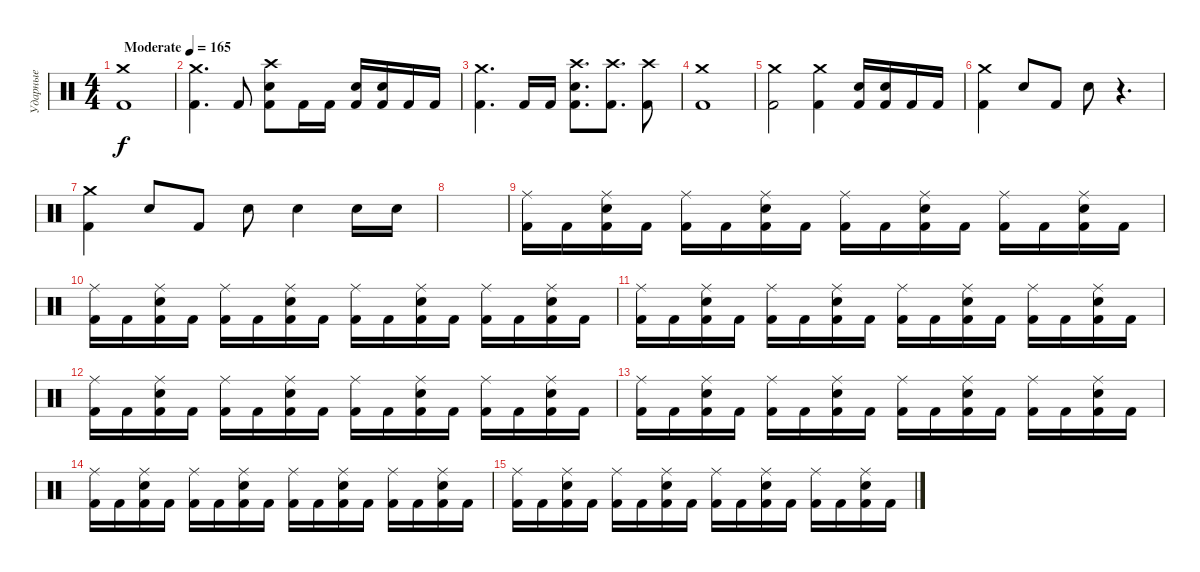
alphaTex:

\track ("Ударные" "Ударные") {instrument percussion}
\staff {score}
\articulation defaults
\ts (4 4)
\tempo (165 "Moderate")
\clef neutral
\ks c
("Kick (hit) 2" "Crash medium (hit)").1{dy f} |
("Kick (hit) 2" "Crash medium (hit)").4{d} "Kick (hit) 2".8 ("Kick (hit) 2" "Electric Snare (hit)" "Crash high (hit)").8 "Kick (hit) 2".16 "Kick (hit) 2".16 ("Kick (hit) 2" "Electric Snare (hit)").16 ("Kick (hit) 2" "Electric Snare (hit)").16 "Kick (hit) 2".16 "Kick (hit) 2".16 |
("Kick (hit) 2" "Crash medium (hit)").4{d} "Kick (hit) 2".16 "Kick (hit) 2".16 ("Kick (hit) 2" "Electric Snare (hit)" "Crash high (hit)").8{d} ("Kick (hit) 2" "Crash high (hit)").8{d} ("Kick (hit) 2" "Crash high (hit)").8 |
("Kick (hit) 2" "Crash medium (hit)").1 |
("Kick (hit) 2" "Crash medium (hit)").2 ("Kick (hit) 2" "Crash medium (hit)").4 ("Kick (hit) 2" "Electric Snare (hit)").16 ("Kick (hit) 2" "Electric Snare (hit)").16 "Kick (hit) 2".16 "Kick (hit) 2".16 |
("Kick (hit) 2" "Crash medium (hit)").4 "Electric Snare (hit)".8 "Kick (hit) 2".8 "Electric Snare (hit)".8 r.4{d} |
("Kick (hit) 2" "Crash medium (hit)").4 "Electric Snare (hit)".8 "Kick (hit) 2".8 "Electric Snare (hit)".8 "Electric Snare (hit)".4 "Electric Snare (hit)".16 "Electric Snare (hit)".16 |
|
("Kick (hit) 2" "Ride (middle)").16 "Kick (hit) 2".16 ("Kick (hit) 2" "Electric Snare (hit)" "Ride (middle)").16 "Kick (hit) 2".16 ("Kick (hit) 2" "Ride (middle)").16 "Kick (hit) 2".16 ("Kick (hit) 2" "Electric Snare (hit)" "Ride (middle)").16 "Kick (hit) 2".16 ("Kick (hit) 2" "Ride (middle)").16 "Kick (hit) 2".16 ("Kick (hit) 2" "Electric Snare (hit)" "Ride (middle)").16 "Kick (hit) 2".16 ("Kick (hit) 2" "Ride (middle)").16 "Kick (hit) 2".16 ("Kick (hit) 2" "Electric Snare (hit)" "Ride (middle)").16 "Kick (hit) 2".16 |
("Kick (hit) 2" "Ride (middle)").16 "Kick (hit) 2".16 ("Kick (hit) 2" "Electric Snare (hit)" "Ride (middle)").16 "Kick (hit) 2".16 ("Kick (hit) 2" "Ride (middle)").16 "Kick (hit) 2".16 ("Kick (hit) 2" "Electric Snare (hit)" "Ride (middle)").16 "Kick (hit) 2".16 ("Kick (hit) 2" "Ride (middle)").16 "Kick (hit) 2".16 ("Kick (hit) 2" "Electric Snare (hit)" "Ride (middle)").16 "Kick (hit) 2".16 ("Kick (hit) 2" "Ride (middle)").16 "Kick (hit) 2".16 ("Kick (hit) 2" "Electric Snare (hit)" "Ride (middle)").16 "Kick (hit) 2".16 |
("Kick (hit) 2" "Ride (middle)").16 "Kick (hit) 2".16 ("Kick (hit) 2" "Electric Snare (hit)" "Ride (middle)").16 "Kick (hit) 2".16 ("Kick (hit) 2" "Ride (middle)").16 "Kick (hit) 2".16 ("Kick (hit) 2" "Electric Snare (hit)" "Ride (middle)").16 "Kick (hit) 2".16 ("Kick (hit) 2" "Ride (middle)").16 "Kick (hit) 2".16 ("Kick (hit) 2" "Electric Snare (hit)" "Ride (middle)").16 "Kick (hit) 2".16 ("Kick (hit) 2" "Ride (middle)").16 "Kick (hit) 2".16 ("Kick (hit) 2" "Electric Snare (hit)" "Ride (middle)").16 "Kick (hit) 2".16 |
("Kick (hit) 2" "Ride (middle)").16 "Kick (hit) 2".16 ("Kick (hit) 2" "Electric Snare (hit)" "Ride (middle)").16 "Kick (hit) 2".16 ("Kick (hit) 2" "Ride (middle)").16 "Kick (hit) 2".16 ("Kick (hit) 2" "Electric Snare (hit)" "Ride (middle)").16 "Kick (hit) 2".16 ("Kick (hit) 2" "Ride (middle)").16 "Kick (hit) 2".16 ("Kick (hit) 2" "Electric Snare (hit)" "Ride (middle)").16 "Kick (hit) 2".16 ("Kick (hit) 2" "Ride (middle)").16 "Kick (hit) 2".16 ("Kick (hit) 2" "Electric Snare (hit)" "Ride (middle)").16 "Kick (hit) 2".16 |
("Kick (hit) 2" "Ride (middle)").16 "Kick (hit) 2".16 ("Kick (hit) 2" "Electric Snare (hit)" "Ride (middle)").16 "Kick (hit) 2".16 ("Kick (hit) 2" "Ride (middle)").16 "Kick (hit) 2".16 ("Kick (hit) 2" "Electric Snare (hit)" "Ride (middle)").16 "Kick (hit) 2".16 ("Kick (hit) 2" "Ride (middle)").16 "Kick (hit) 2".16 ("Kick (hit) 2" "Electric Snare (hit)" "Ride (middle)").16 "Kick (hit) 2".16 ("Kick (hit) 2" "Ride (middle)").16 "Kick (hit) 2".16 ("Kick (hit) 2" "Electric Snare (hit)" "Ride (middle)").16 "Kick (hit) 2".16 |
("Kick (hit) 2" "Ride (middle)").16 "Kick (hit) 2".16 ("Kick (hit) 2" "Electric Snare (hit)" "Ride (middle)").16 "Kick (hit) 2".16 ("Kick (hit) 2" "Ride (middle)").16 "Kick (hit) 2".16 ("Kick (hit) 2" "Electric Snare (hit)" "Ride (middle)").16 "Kick (hit) 2".16 ("Kick (hit) 2" "Ride (middle)").16 "Kick (hit) 2".16 ("Kick (hit) 2" "Electric Snare (hit)" "Ride (middle)").16 "Kick (hit) 2".16 ("Kick (hit) 2" "Ride (middle)").16 "Kick (hit) 2".16 ("Kick (hit) 2" "Electric Snare (hit)" "Ride (middle)").16 "Kick (hit) 2".16 |
("Kick (hit) 2" "Ride (middle)").16 "Kick (hit) 2".16 ("Kick (hit) 2" "Electric Snare (hit)" "Ride (middle)").16 "Kick (hit) 2".16 ("Kick (hit) 2" "Ride (middle)").16 "Kick (hit) 2".16 ("Kick (hit) 2" "Electric Snare (hit)" "Ride (middle)").16 "Kick (hit) 2".16 ("Kick (hit) 2" "Ride (middle)").16 "Kick (hit) 2".16 ("Kick (hit) 2" "Electric Snare (hit)" "Ride (middle)").16 "Kick (hit) 2".16 ("Kick (hit) 2" "Ride (middle)").16 "Kick (hit) 2".16 ("Kick (hit) 2" "Electric Snare (hit)" "Ride (middle)").16 "Kick (hit) 2".16
